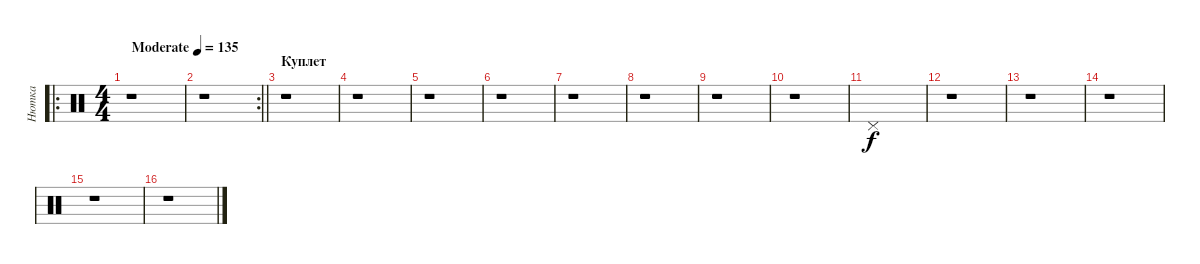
\track ("Нютка" "Нютка") {instrument percussion}
\staff {score}
\articulation defaults
\ro
\ts (4 4)
\tempo (135 "Moderate")
\clef neutral
\ks c
r.1{dy f} |
\rc 2
\barLineRight lightlight
r.1 |
\section ("" "Куплет")
r.1 |
r.1 |
r.1 |
r.1 |
r.1 |
r.1 |
r.1 |
r.1 |
"Pedal Hi-Hat (hit)".1 |
r.1 |
r.1 |
r.1 |
r.1 |
r.1
